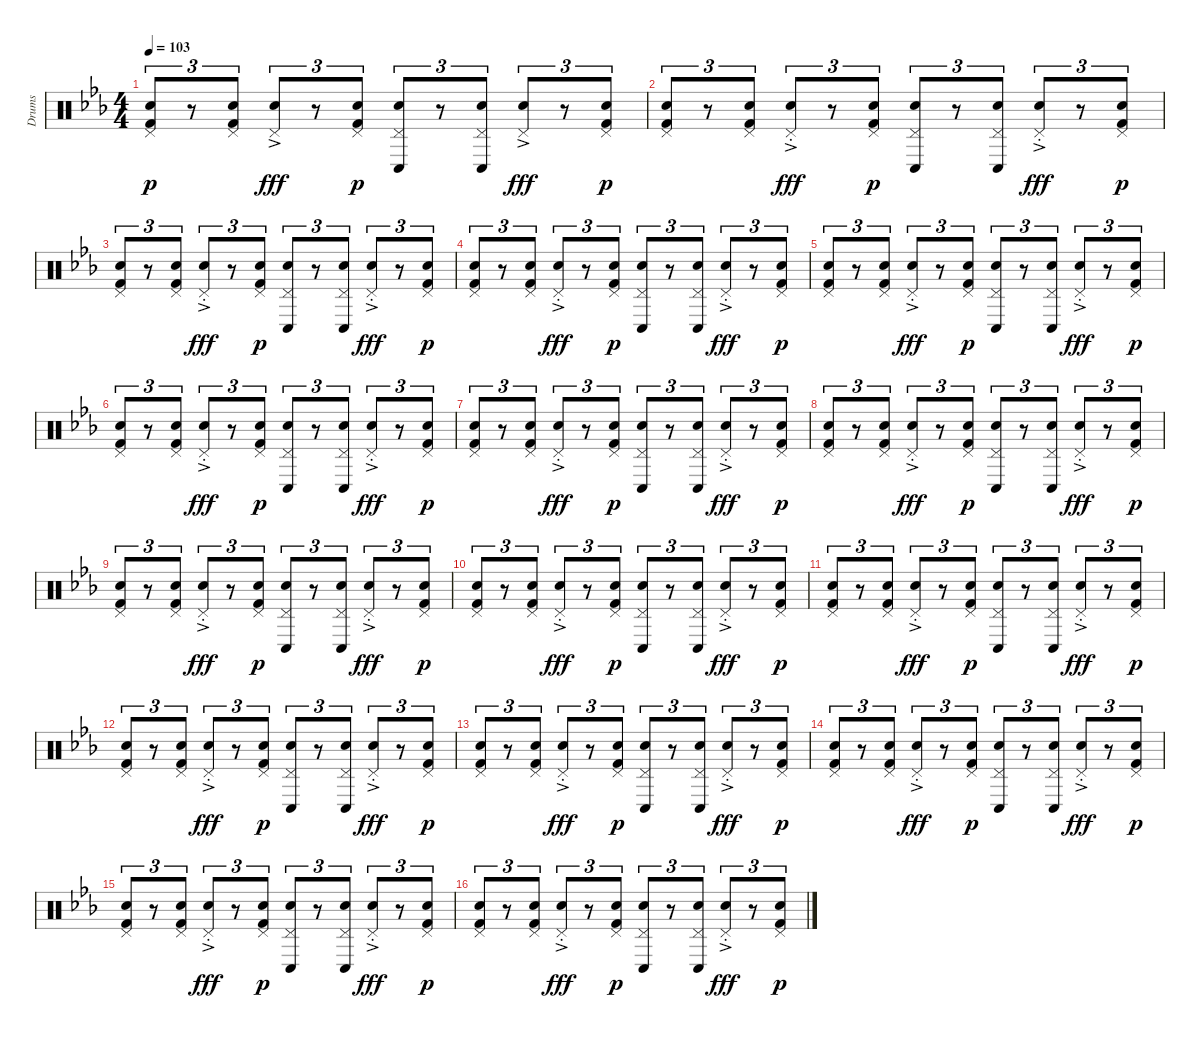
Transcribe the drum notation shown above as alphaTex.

\track ("Drums" "Drums") {instrument percussion}
\staff {score}
\articulation defaults
\ts (4 4)
\tempo 103
\clef neutral
\ks eb
("Pedal Hi-Hat (hit)" "Snare (hit) 2" "Kick (hit) 2").8{tu (3 2) dy p} r.8{tu (3 2)} ("Pedal Hi-Hat (hit)" "Snare (hit) 2" "Kick (hit) 2").8{tu (3 2)} ("Pedal Hi-Hat (hit)"{ac} "Snare (hit) 2"{ac}).8{tu (3 2) dy fff} r.8{tu (3 2)} ("Pedal Hi-Hat (hit)" "Snare (hit) 2" "Kick (hit) 2").8{tu (3 2) dy p} ("Pedal Hi-Hat (hit)" "Snare (hit) 2" "Conga low (hit)").8{tu (3 2)} r.8{tu (3 2)} ("Pedal Hi-Hat (hit)" "Snare (hit) 2" "Conga low (hit)").8{tu (3 2)} ("Pedal Hi-Hat (hit)"{ac} "Snare (hit) 2"{ac}).8{tu (3 2) dy fff} r.8{tu (3 2)} ("Pedal Hi-Hat (hit)" "Snare (hit) 2" "Kick (hit) 2").8{tu (3 2) dy p} |
("Pedal Hi-Hat (hit)" "Snare (hit) 2" "Kick (hit) 2").8{tu (3 2)} r.8{tu (3 2)} ("Pedal Hi-Hat (hit)" "Snare (hit) 2" "Kick (hit) 2").8{tu (3 2)} ("Pedal Hi-Hat (hit)"{ac st} "Snare (hit) 2"{ac}).8{tu (3 2) dy fff} r.8{tu (3 2)} ("Pedal Hi-Hat (hit)" "Snare (hit) 2" "Kick (hit) 2").8{tu (3 2) dy p} ("Pedal Hi-Hat (hit)" "Snare (hit) 2" "Conga low (hit)").8{tu (3 2)} r.8{tu (3 2)} ("Pedal Hi-Hat (hit)" "Snare (hit) 2" "Conga low (hit)").8{tu (3 2)} ("Pedal Hi-Hat (hit)"{ac st} "Snare (hit) 2"{ac}).8{tu (3 2) dy fff} r.8{tu (3 2)} ("Pedal Hi-Hat (hit)" "Snare (hit) 2" "Kick (hit) 2").8{tu (3 2) dy p} |
("Pedal Hi-Hat (hit)" "Snare (hit) 2" "Kick (hit) 2").8{tu (3 2)} r.8{tu (3 2)} ("Pedal Hi-Hat (hit)" "Snare (hit) 2" "Kick (hit) 2").8{tu (3 2)} ("Pedal Hi-Hat (hit)"{ac st} "Snare (hit) 2"{ac}).8{tu (3 2) dy fff} r.8{tu (3 2)} ("Pedal Hi-Hat (hit)" "Snare (hit) 2" "Kick (hit) 2").8{tu (3 2) dy p} ("Pedal Hi-Hat (hit)" "Snare (hit) 2" "Conga low (hit)").8{tu (3 2)} r.8{tu (3 2)} ("Pedal Hi-Hat (hit)" "Snare (hit) 2" "Conga low (hit)").8{tu (3 2)} ("Pedal Hi-Hat (hit)"{ac st} "Snare (hit) 2"{ac}).8{tu (3 2) dy fff} r.8{tu (3 2)} ("Pedal Hi-Hat (hit)" "Snare (hit) 2" "Kick (hit) 2").8{tu (3 2) dy p} |
("Pedal Hi-Hat (hit)" "Snare (hit) 2" "Kick (hit) 2").8{tu (3 2)} r.8{tu (3 2)} ("Pedal Hi-Hat (hit)" "Snare (hit) 2" "Kick (hit) 2").8{tu (3 2)} ("Pedal Hi-Hat (hit)"{ac st} "Snare (hit) 2"{ac}).8{tu (3 2) dy fff} r.8{tu (3 2)} ("Pedal Hi-Hat (hit)" "Snare (hit) 2" "Kick (hit) 2").8{tu (3 2) dy p} ("Pedal Hi-Hat (hit)" "Snare (hit) 2" "Conga low (hit)").8{tu (3 2)} r.8{tu (3 2)} ("Pedal Hi-Hat (hit)" "Snare (hit) 2" "Conga low (hit)").8{tu (3 2)} ("Pedal Hi-Hat (hit)"{ac st} "Snare (hit) 2"{ac}).8{tu (3 2) dy fff} r.8{tu (3 2)} ("Pedal Hi-Hat (hit)" "Snare (hit) 2" "Kick (hit) 2").8{tu (3 2) dy p} |
("Pedal Hi-Hat (hit)" "Snare (hit) 2" "Kick (hit) 2").8{tu (3 2)} r.8{tu (3 2)} ("Pedal Hi-Hat (hit)" "Snare (hit) 2" "Kick (hit) 2").8{tu (3 2)} ("Pedal Hi-Hat (hit)"{ac st} "Snare (hit) 2"{ac}).8{tu (3 2) dy fff} r.8{tu (3 2)} ("Pedal Hi-Hat (hit)" "Snare (hit) 2" "Kick (hit) 2").8{tu (3 2) dy p} ("Pedal Hi-Hat (hit)" "Snare (hit) 2" "Conga low (hit)").8{tu (3 2)} r.8{tu (3 2)} ("Pedal Hi-Hat (hit)" "Snare (hit) 2" "Conga low (hit)").8{tu (3 2)} ("Pedal Hi-Hat (hit)"{ac st} "Snare (hit) 2"{ac}).8{tu (3 2) dy fff} r.8{tu (3 2)} ("Pedal Hi-Hat (hit)" "Snare (hit) 2" "Kick (hit) 2").8{tu (3 2) dy p} |
("Pedal Hi-Hat (hit)" "Snare (hit) 2" "Kick (hit) 2").8{tu (3 2)} r.8{tu (3 2)} ("Pedal Hi-Hat (hit)" "Snare (hit) 2" "Kick (hit) 2").8{tu (3 2)} ("Pedal Hi-Hat (hit)"{ac st} "Snare (hit) 2"{ac}).8{tu (3 2) dy fff} r.8{tu (3 2)} ("Pedal Hi-Hat (hit)" "Snare (hit) 2" "Kick (hit) 2").8{tu (3 2) dy p} ("Pedal Hi-Hat (hit)" "Snare (hit) 2" "Conga low (hit)").8{tu (3 2)} r.8{tu (3 2)} ("Pedal Hi-Hat (hit)" "Snare (hit) 2" "Conga low (hit)").8{tu (3 2)} ("Pedal Hi-Hat (hit)"{ac st} "Snare (hit) 2"{ac}).8{tu (3 2) dy fff} r.8{tu (3 2)} ("Pedal Hi-Hat (hit)" "Snare (hit) 2" "Kick (hit) 2").8{tu (3 2) dy p} |
("Pedal Hi-Hat (hit)" "Snare (hit) 2" "Kick (hit) 2").8{tu (3 2)} r.8{tu (3 2)} ("Pedal Hi-Hat (hit)" "Snare (hit) 2" "Kick (hit) 2").8{tu (3 2)} ("Pedal Hi-Hat (hit)"{ac st} "Snare (hit) 2"{ac}).8{tu (3 2) dy fff} r.8{tu (3 2)} ("Pedal Hi-Hat (hit)" "Snare (hit) 2" "Kick (hit) 2").8{tu (3 2) dy p} ("Pedal Hi-Hat (hit)" "Snare (hit) 2" "Conga low (hit)").8{tu (3 2)} r.8{tu (3 2)} ("Pedal Hi-Hat (hit)" "Snare (hit) 2" "Conga low (hit)").8{tu (3 2)} ("Pedal Hi-Hat (hit)"{ac st} "Snare (hit) 2"{ac}).8{tu (3 2) dy fff} r.8{tu (3 2)} ("Pedal Hi-Hat (hit)" "Snare (hit) 2" "Kick (hit) 2").8{tu (3 2) dy p} |
("Pedal Hi-Hat (hit)" "Snare (hit) 2" "Kick (hit) 2").8{tu (3 2)} r.8{tu (3 2)} ("Pedal Hi-Hat (hit)" "Snare (hit) 2" "Kick (hit) 2").8{tu (3 2)} ("Pedal Hi-Hat (hit)"{ac st} "Snare (hit) 2"{ac}).8{tu (3 2) dy fff} r.8{tu (3 2)} ("Pedal Hi-Hat (hit)" "Snare (hit) 2" "Kick (hit) 2").8{tu (3 2) dy p} ("Pedal Hi-Hat (hit)" "Snare (hit) 2" "Conga low (hit)").8{tu (3 2)} r.8{tu (3 2)} ("Pedal Hi-Hat (hit)" "Snare (hit) 2" "Conga low (hit)").8{tu (3 2)} ("Pedal Hi-Hat (hit)"{ac st} "Snare (hit) 2"{ac}).8{tu (3 2) dy fff} r.8{tu (3 2)} ("Pedal Hi-Hat (hit)" "Snare (hit) 2" "Kick (hit) 2").8{tu (3 2) dy p} |
("Pedal Hi-Hat (hit)" "Snare (hit) 2" "Kick (hit) 2").8{tu (3 2)} r.8{tu (3 2)} ("Pedal Hi-Hat (hit)" "Snare (hit) 2" "Kick (hit) 2").8{tu (3 2)} ("Pedal Hi-Hat (hit)"{ac st} "Snare (hit) 2"{ac}).8{tu (3 2) dy fff} r.8{tu (3 2)} ("Pedal Hi-Hat (hit)" "Snare (hit) 2" "Kick (hit) 2").8{tu (3 2) dy p} ("Pedal Hi-Hat (hit)" "Snare (hit) 2" "Conga low (hit)").8{tu (3 2)} r.8{tu (3 2)} ("Pedal Hi-Hat (hit)" "Snare (hit) 2" "Conga low (hit)").8{tu (3 2)} ("Pedal Hi-Hat (hit)"{ac st} "Snare (hit) 2"{ac}).8{tu (3 2) dy fff} r.8{tu (3 2)} ("Pedal Hi-Hat (hit)" "Snare (hit) 2" "Kick (hit) 2").8{tu (3 2) dy p} |
("Pedal Hi-Hat (hit)" "Snare (hit) 2" "Kick (hit) 2").8{tu (3 2)} r.8{tu (3 2)} ("Pedal Hi-Hat (hit)" "Snare (hit) 2" "Kick (hit) 2").8{tu (3 2)} ("Pedal Hi-Hat (hit)"{ac st} "Snare (hit) 2"{ac}).8{tu (3 2) dy fff} r.8{tu (3 2)} ("Pedal Hi-Hat (hit)" "Snare (hit) 2" "Kick (hit) 2").8{tu (3 2) dy p} ("Pedal Hi-Hat (hit)" "Snare (hit) 2" "Conga low (hit)").8{tu (3 2)} r.8{tu (3 2)} ("Pedal Hi-Hat (hit)" "Snare (hit) 2" "Conga low (hit)").8{tu (3 2)} ("Pedal Hi-Hat (hit)"{ac st} "Snare (hit) 2"{ac}).8{tu (3 2) dy fff} r.8{tu (3 2)} ("Pedal Hi-Hat (hit)" "Snare (hit) 2" "Kick (hit) 2").8{tu (3 2) dy p} |
("Pedal Hi-Hat (hit)" "Snare (hit) 2" "Kick (hit) 2").8{tu (3 2)} r.8{tu (3 2)} ("Pedal Hi-Hat (hit)" "Snare (hit) 2" "Kick (hit) 2").8{tu (3 2)} ("Pedal Hi-Hat (hit)"{ac st} "Snare (hit) 2"{ac}).8{tu (3 2) dy fff} r.8{tu (3 2)} ("Pedal Hi-Hat (hit)" "Snare (hit) 2" "Kick (hit) 2").8{tu (3 2) dy p} ("Pedal Hi-Hat (hit)" "Snare (hit) 2" "Conga low (hit)").8{tu (3 2)} r.8{tu (3 2)} ("Pedal Hi-Hat (hit)" "Snare (hit) 2" "Conga low (hit)").8{tu (3 2)} ("Pedal Hi-Hat (hit)"{ac st} "Snare (hit) 2"{ac}).8{tu (3 2) dy fff} r.8{tu (3 2)} ("Pedal Hi-Hat (hit)" "Snare (hit) 2" "Kick (hit) 2").8{tu (3 2) dy p} |
("Pedal Hi-Hat (hit)" "Snare (hit) 2" "Kick (hit) 2").8{tu (3 2)} r.8{tu (3 2)} ("Pedal Hi-Hat (hit)" "Snare (hit) 2" "Kick (hit) 2").8{tu (3 2)} ("Pedal Hi-Hat (hit)"{ac st} "Snare (hit) 2"{ac}).8{tu (3 2) dy fff} r.8{tu (3 2)} ("Pedal Hi-Hat (hit)" "Snare (hit) 2" "Kick (hit) 2").8{tu (3 2) dy p} ("Pedal Hi-Hat (hit)" "Snare (hit) 2" "Conga low (hit)").8{tu (3 2)} r.8{tu (3 2)} ("Pedal Hi-Hat (hit)" "Snare (hit) 2" "Conga low (hit)").8{tu (3 2)} ("Pedal Hi-Hat (hit)"{ac st} "Snare (hit) 2"{ac}).8{tu (3 2) dy fff} r.8{tu (3 2)} ("Pedal Hi-Hat (hit)" "Snare (hit) 2" "Kick (hit) 2").8{tu (3 2) dy p} |
("Pedal Hi-Hat (hit)" "Snare (hit) 2" "Kick (hit) 2").8{tu (3 2)} r.8{tu (3 2)} ("Pedal Hi-Hat (hit)" "Snare (hit) 2" "Kick (hit) 2").8{tu (3 2)} ("Pedal Hi-Hat (hit)"{ac st} "Snare (hit) 2"{ac}).8{tu (3 2) dy fff} r.8{tu (3 2)} ("Pedal Hi-Hat (hit)" "Snare (hit) 2" "Kick (hit) 2").8{tu (3 2) dy p} ("Pedal Hi-Hat (hit)" "Snare (hit) 2" "Conga low (hit)").8{tu (3 2)} r.8{tu (3 2)} ("Pedal Hi-Hat (hit)" "Snare (hit) 2" "Conga low (hit)").8{tu (3 2)} ("Pedal Hi-Hat (hit)"{ac st} "Snare (hit) 2"{ac}).8{tu (3 2) dy fff} r.8{tu (3 2)} ("Pedal Hi-Hat (hit)" "Snare (hit) 2" "Kick (hit) 2").8{tu (3 2) dy p} |
("Pedal Hi-Hat (hit)" "Snare (hit) 2" "Kick (hit) 2").8{tu (3 2)} r.8{tu (3 2)} ("Pedal Hi-Hat (hit)" "Snare (hit) 2" "Kick (hit) 2").8{tu (3 2)} ("Pedal Hi-Hat (hit)"{ac st} "Snare (hit) 2"{ac}).8{tu (3 2) dy fff} r.8{tu (3 2)} ("Pedal Hi-Hat (hit)" "Snare (hit) 2" "Kick (hit) 2").8{tu (3 2) dy p} ("Pedal Hi-Hat (hit)" "Snare (hit) 2" "Conga low (hit)").8{tu (3 2)} r.8{tu (3 2)} ("Pedal Hi-Hat (hit)" "Snare (hit) 2" "Conga low (hit)").8{tu (3 2)} ("Pedal Hi-Hat (hit)"{ac st} "Snare (hit) 2"{ac}).8{tu (3 2) dy fff} r.8{tu (3 2)} ("Pedal Hi-Hat (hit)" "Snare (hit) 2" "Kick (hit) 2").8{tu (3 2) dy p} |
("Pedal Hi-Hat (hit)" "Snare (hit) 2" "Kick (hit) 2").8{tu (3 2)} r.8{tu (3 2)} ("Pedal Hi-Hat (hit)" "Snare (hit) 2" "Kick (hit) 2").8{tu (3 2)} ("Pedal Hi-Hat (hit)"{ac st} "Snare (hit) 2"{ac}).8{tu (3 2) dy fff} r.8{tu (3 2)} ("Pedal Hi-Hat (hit)" "Snare (hit) 2" "Kick (hit) 2").8{tu (3 2) dy p} ("Pedal Hi-Hat (hit)" "Snare (hit) 2" "Conga low (hit)").8{tu (3 2)} r.8{tu (3 2)} ("Pedal Hi-Hat (hit)" "Snare (hit) 2" "Conga low (hit)").8{tu (3 2)} ("Pedal Hi-Hat (hit)"{ac st} "Snare (hit) 2"{ac}).8{tu (3 2) dy fff} r.8{tu (3 2)} ("Pedal Hi-Hat (hit)" "Snare (hit) 2" "Kick (hit) 2").8{tu (3 2) dy p} |
("Pedal Hi-Hat (hit)" "Snare (hit) 2" "Kick (hit) 2").8{tu (3 2)} r.8{tu (3 2)} ("Pedal Hi-Hat (hit)" "Snare (hit) 2" "Kick (hit) 2").8{tu (3 2)} ("Pedal Hi-Hat (hit)"{ac st} "Snare (hit) 2"{ac}).8{tu (3 2) dy fff} r.8{tu (3 2)} ("Pedal Hi-Hat (hit)" "Snare (hit) 2" "Kick (hit) 2").8{tu (3 2) dy p} ("Pedal Hi-Hat (hit)" "Snare (hit) 2" "Conga low (hit)").8{tu (3 2)} r.8{tu (3 2)} ("Pedal Hi-Hat (hit)" "Snare (hit) 2" "Conga low (hit)").8{tu (3 2)} ("Pedal Hi-Hat (hit)"{ac st} "Snare (hit) 2"{ac}).8{tu (3 2) dy fff} r.8{tu (3 2)} ("Pedal Hi-Hat (hit)" "Snare (hit) 2" "Kick (hit) 2").8{tu (3 2) dy p}
